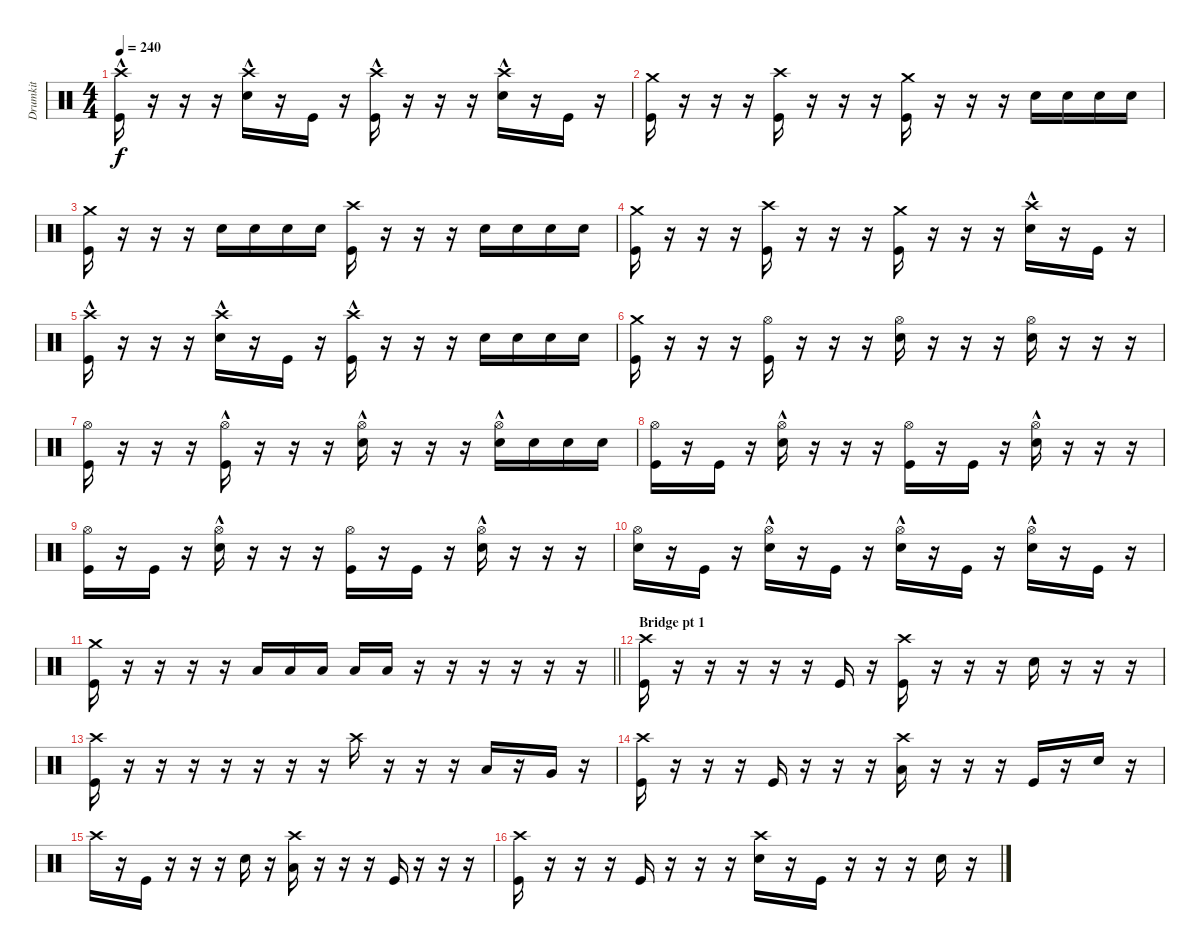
\track ("Drumkit" "Drumkit") {instrument percussion}
\staff {score}
\articulation defaults
\ts (4 4)
\tempo 240
\clef neutral
\ks c
("Crash high (hit)"{hac} "Kick (hit)").16{dy f} r.16 r.16 r.16 ("Crash high (hit)"{hac} "Snare (hit) 2").16 r.16 "Kick (hit)".16 r.16 ("Crash high (hit)"{hac} "Kick (hit)").16 r.16 r.16 r.16 ("Crash high (hit)"{hac} "Snare (hit) 2").16 r.16 "Kick (hit)".16 r.16 |
("Crash medium (hit)" "Kick (hit)").16 r.16 r.16 r.16 ("Crash high (hit)" "Kick (hit)").16 r.16 r.16 r.16 ("Crash medium (hit)" "Kick (hit)").16 r.16 r.16 r.16 "Snare (hit) 2".16 "Snare (hit) 2".16 "Snare (hit) 2".16 "Snare (hit) 2".16 |
("Crash medium (hit)" "Kick (hit)").16 r.16 r.16 r.16 "Snare (hit) 2".16 "Snare (hit) 2".16 "Snare (hit) 2".16 "Snare (hit) 2".16 ("Crash high (hit)" "Kick (hit)").16 r.16 r.16 r.16 "Snare (hit) 2".16 "Snare (hit) 2".16 "Snare (hit) 2".16 "Snare (hit) 2".16 |
("Crash medium (hit)" "Kick (hit)").16 r.16 r.16 r.16 ("Crash high (hit)" "Kick (hit)").16 r.16 r.16 r.16 ("Crash medium (hit)" "Kick (hit)").16 r.16 r.16 r.16 ("Crash high (hit)"{hac} "Snare (hit) 2").16 r.16 "Kick (hit)".16 r.16 |
("Crash high (hit)"{hac} "Kick (hit)").16 r.16 r.16 r.16 ("Crash high (hit)"{hac} "Snare (hit) 2").16 r.16 "Kick (hit)".16 r.16 ("Crash high (hit)"{hac} "Kick (hit)").16 r.16 r.16 r.16 "Snare (hit) 2".16 "Snare (hit) 2".16 "Snare (hit) 2".16 "Snare (hit) 2".16 |
("Crash medium (hit)" "Kick (hit)").16 r.16 r.16 r.16 ("Hi-Hat (open)" "Kick (hit)").16 r.16 r.16 r.16 ("Hi-Hat (open)" "Snare (hit) 2").16 r.16 r.16 r.16 ("Hi-Hat (open)" "Snare (hit) 2").16 r.16 r.16 r.16 |
("Hi-Hat (open)" "Kick (hit)").16 r.16 r.16 r.16 ("Hi-Hat (open)"{hac} "Kick (hit)").16 r.16 r.16 r.16 ("Hi-Hat (open)"{hac} "Snare (hit) 2").16 r.16 r.16 r.16 ("Hi-Hat (open)"{hac} "Snare (hit) 2").16 "Snare (hit) 2".16 "Snare (hit) 2".16 "Snare (hit) 2".16 |
("Hi-Hat (open)" "Kick (hit)").16 r.16 "Kick (hit)".16 r.16 ("Hi-Hat (open)"{hac} "Snare (hit) 2").16 r.16 r.16 r.16 ("Hi-Hat (open)" "Kick (hit)").16 r.16 "Kick (hit)".16 r.16 ("Hi-Hat (open)"{hac} "Snare (hit) 2").16 r.16 r.16 r.16 |
("Hi-Hat (open)" "Kick (hit)").16 r.16 "Kick (hit)".16 r.16 ("Hi-Hat (open)"{hac} "Snare (hit) 2").16 r.16 r.16 r.16 ("Hi-Hat (open)" "Kick (hit)").16 r.16 "Kick (hit)".16 r.16 ("Hi-Hat (open)"{hac} "Snare (hit) 2").16 r.16 r.16 r.16 |
("Hi-Hat (open)" "Snare (hit) 2").16 r.16 "Kick (hit)".16 r.16 ("Hi-Hat (open)"{hac} "Snare (hit) 2").16 r.16 "Kick (hit)".16 r.16 ("Hi-Hat (open)"{hac} "Snare (hit) 2").16 r.16 "Kick (hit)".16 r.16 ("Hi-Hat (open)"{hac} "Snare (hit) 2").16 r.16 "Kick (hit)".16 r.16 |
\barLineRight lightlight
("Crash medium (hit)" "Kick (hit)").16 r.16 r.16 r.16 r.16 "Low Tom (hit)".16 "Low Tom (hit)".16 "Low Tom (hit)".16 "Low Tom (hit)".16 "Low Floor Tom (hit)".16 r.16 r.16 r.16 r.16 r.16 r.16 |
\section ("" "Bridge pt 1")
("Crash high (hit)" "Kick (hit)").16 r.16 r.16 r.16 r.16 r.16 "Kick (hit)".16 r.16 ("Crash high (hit)" "Kick (hit)").16 r.16 r.16 r.16 "Snare (hit) 2".16 r.16 r.16 r.16 |
("Crash high (hit)" "Kick (hit)").16 r.16 r.16 r.16 r.16 r.16 r.16 r.16 "Crash high (hit)".16 r.16 r.16 r.16 "Low Tom (hit)".16 r.16 "Very Low Tom (hit)".16 r.16 |
("Crash high (hit)" "Kick (hit)").16 r.16 r.16 r.16 "Kick (hit)".16 r.16 r.16 r.16 ("Crash high (hit)" "Low Tom (hit)").16 r.16 r.16 r.16 "Kick (hit)".16 r.16 "Snare (hit) 2".16 r.16 |
"Crash high (hit)".16 r.16 "Kick (hit)".16 r.16 r.16 r.16 "Snare (hit) 2".16 r.16 ("Crash high (hit)" "Low Tom (hit)").16 r.16 r.16 r.16 "Kick (hit)".16 r.16 r.16 r.16 |
("Crash high (hit)" "Kick (hit)").16 r.16 r.16 r.16 "Kick (hit)".16 r.16 r.16 r.16 ("Crash high (hit)" "Snare (hit) 2").16 r.16 "Kick (hit)".16 r.16 r.16 r.16 "Snare (hit) 2".16 r.16
